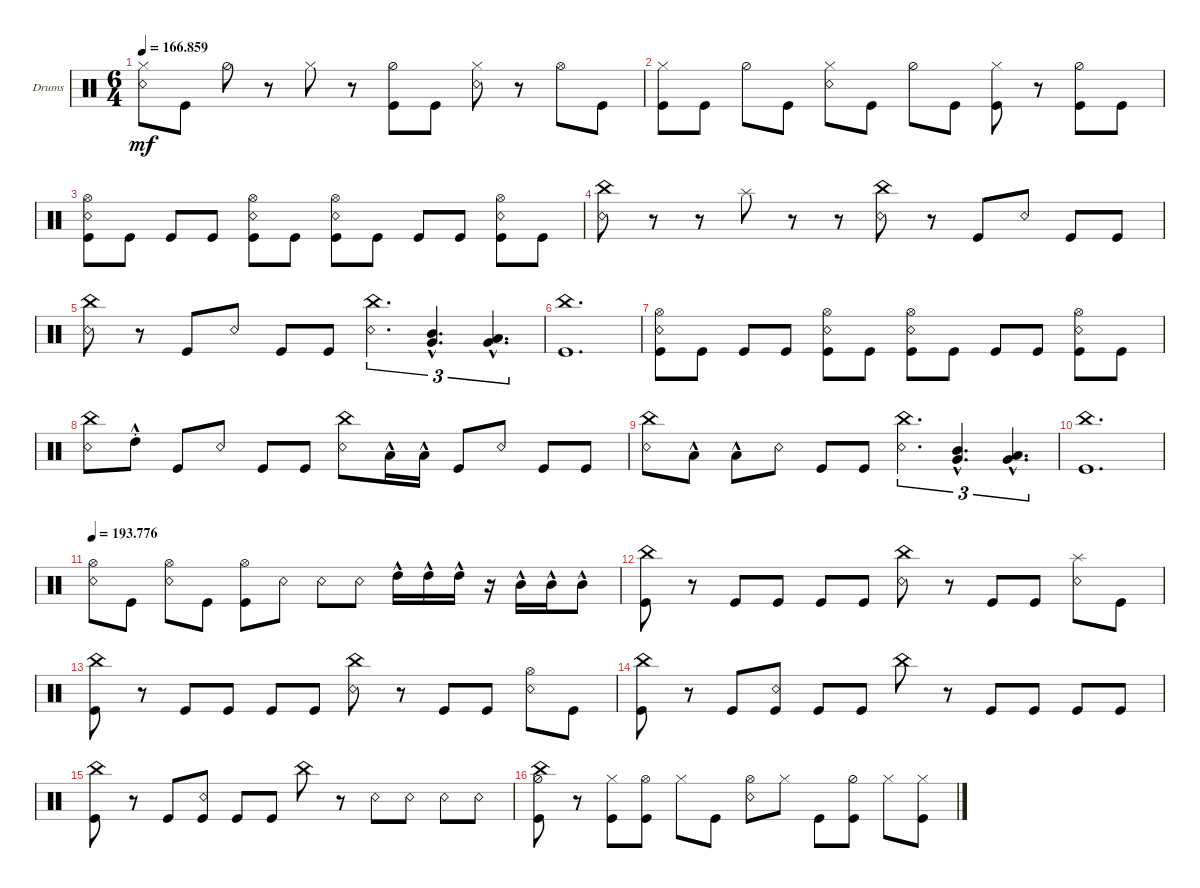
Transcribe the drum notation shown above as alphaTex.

\defaultSystemsLayout 4
\bracketExtendMode groupsimilarinstruments
\firstSystemTrackNameOrientation horizontal
\otherSystemsTrackNameOrientation horizontal
\track ("Drumkit" "Drums") {mute multiBarRest instrument percussion}
\staff {score}
\articulation defaults
\ts (6 4)
\tempo
166.859
\accidentals auto
\clef neutral
\ottava regular
\simile none
\scale
0.333333
\ks c
("Snare (rim shot)" "Hi-Hat (closed)").8{dy mf} "Kick (hit)".8 "Hi-Hat (half)".8 r.8 "Hi-Hat (closed)".8 r.8 ("Hi-Hat (half)" "Kick (hit)").8 "Kick (hit)".8 ("Hi-Hat (closed)" "Snare (rim shot)").8 r.8 "Hi-Hat (open)".8 "Kick (hit)".8 |
\scale
0.333333 ("Kick (hit)" "Hi-Hat (closed)").8 "Kick (hit)".8 "Hi-Hat (half)".8 "Kick (hit)".8 ("Snare (rim shot)" "Hi-Hat (closed)").8 "Kick (hit)".8 "Hi-Hat (half)".8 "Kick (hit)".8 ("Kick (hit)" "Hi-Hat (closed)").8 r.8 ("Kick (hit)" "Hi-Hat (half)").8 "Kick (hit)".8 |
\scale
0.333333 ("Snare (rim shot)" "Kick (hit)" "Hi-Hat (open)").8 "Kick (hit)".8 "Kick (hit)".8 "Kick (hit)".8 ("Kick (hit)" "Snare (rim shot)" "Hi-Hat (open)").8 "Kick (hit)".8 ("Snare (rim shot)" "Kick (hit)" "Hi-Hat (open)").8 "Kick (hit)".8 "Kick (hit)".8 "Kick (hit)".8 ("Kick (hit)" "Snare (rim shot)" "Hi-Hat (open)").8 "Kick (hit)".8 |
\scale
0.333333 ("China (hit)" "Snare (rim shot)").8 r.8 r.8 "Splash (hit)".8 r.8 r.8 ("China (hit)" "Snare (rim shot)").8 r.8 "Kick (hit)".8 "Snare (rim shot)".8 "Kick (hit)".8 "Kick (hit)".8 |
\scale
0.333333 ("China (hit)" "Snare (rim shot)").8 r.8 "Kick (hit)".8 "Snare (rim shot)".8 "Kick (hit)".8 "Kick (hit)".8 ("China (hit)" "Snare (rim shot)").4{d tu (3 2)} ("Very Low Tom (hit)"{hac} "Mid Tom (hit)"{hac}).4{d tu (3 2)} ("Very Low Tom (hit)"{hac} "Low Tom (hit)"{hac}).4{d tu (3 2)} |
\scale
0.333333 ("Kick (hit)" "China (hit)").1{d} |
\scale
0.333333 ("Snare (rim shot)" "Kick (hit)" "Hi-Hat (open)").8 "Kick (hit)".8 "Kick (hit)".8 "Kick (hit)".8 ("Kick (hit)" "Snare (rim shot)" "Hi-Hat (open)").8 "Kick (hit)".8 ("Snare (rim shot)" "Kick (hit)" "Hi-Hat (open)").8 "Kick (hit)".8 "Kick (hit)".8 "Kick (hit)".8 ("Kick (hit)" "Snare (rim shot)" "Hi-Hat (open)").8 "Kick (hit)".8 |
\scale
0.333333 ("China (hit)" "Snare (rim shot)").8 "High Tom (hit)"{hac st}.8 "Kick (hit)".8 "Snare (rim shot)".8 "Kick (hit)".8 "Kick (hit)".8 ("China (hit)" "Snare (rim shot)").8 "Low Tom (hit)"{hac}.16 "Low Tom (hit)"{hac}.16 "Kick (hit)".8 "Snare (rim shot)".8 "Kick (hit)".8 "Kick (hit)".8 |
\scale
0.333333 ("China (hit)" "Snare (rim shot)").8 "Low Tom (hit)"{hac}.8 "Low Tom (hit)"{hac}.8 "Snare (rim shot)".8 "Kick (hit)".8 "Kick (hit)".8 ("China (hit)" "Snare (rim shot)").4{d tu (3 2)} ("Very Low Tom (hit)"{hac} "Mid Tom (hit)"{hac}).4{d tu (3 2)} ("Very Low Tom (hit)"{hac} "Low Tom (hit)"{hac}).4{d tu (3 2)} |
\scale
0.333333 ("Kick (hit)" "China (hit)").1{d} |
\tempo
193.776
\scale
0.333333 ("Snare (rim shot)" "Hi-Hat (open)").8 "Kick (hit)".8 ("Snare (rim shot)" "Hi-Hat (open)").8 "Kick (hit)".8 ("Kick (hit)" "Hi-Hat (open)").8 "Snare (rim shot)".8 "Snare (rim shot)".8 "Snare (rim shot)".8 "High Tom (hit)"{hac}.16 "High Tom (hit)"{hac}.16 "High Tom (hit)"{hac}.16 r.16 "Mid Tom (hit)"{hac}.16 "Mid Tom (hit)"{hac}.16 "Mid Tom (hit)"{hac}.8 |
\scale
0.333333 ("China (hit)" "Kick (hit)").8 r.8 "Kick (hit)".8 "Kick (hit)".8 "Kick (hit)".8 "Kick (hit)".8 ("Snare (rim shot)" "China (hit)").8 r.8 "Kick (hit)".8 "Kick (hit)".8 ("Snare (rim shot)" "Splash (hit)").8 "Kick (hit)".8 |
\scale
0.333333 ("China (hit)" "Kick (hit)").8 r.8 "Kick (hit)".8 "Kick (hit)".8 "Kick (hit)".8 "Kick (hit)".8 ("Snare (rim shot)" "China (hit)").8 r.8 "Kick (hit)".8 "Kick (hit)".8 ("Snare (rim shot)" "Hi-Hat (open)").8 "Kick (hit)".8 |
\scale
0.333333 ("China (hit)" "Kick (hit)").8 r.8 "Kick (hit)".8 ("Kick (hit)" "Snare (rim shot)").8 "Kick (hit)".8 "Kick (hit)".8 "China (hit)".8 r.8 "Kick (hit)".8 "Kick (hit)".8 "Kick (hit)".8 "Kick (hit)".8 |
\scale
0.333333 ("China (hit)" "Kick (hit)").8 r.8 "Kick (hit)".8 ("Kick (hit)" "Snare (rim shot)").8 "Kick (hit)".8 "Kick (hit)".8 "China (hit)".8 r.8 "Snare (rim shot)".8 "Snare (rim shot)".8 "Snare (rim shot)".8 "Snare (rim shot)".8 |
\scale
0.333333 ("Kick (hit)" "Hi-Hat (half)" "China (hit)").8 r.8 ("Hi-Hat (closed)" "Kick (hit)").8 ("Kick (hit)" "Hi-Hat (open)").8 "Hi-Hat (closed)".8 "Kick (hit)".8 ("Snare (rim shot)" "Hi-Hat (open)").8 "Hi-Hat (closed)".8 "Kick (hit)".8 ("Kick (hit)" "Hi-Hat (half)").8 "Hi-Hat (closed)".8 ("Hi-Hat (closed)" "Kick (hit)").8
